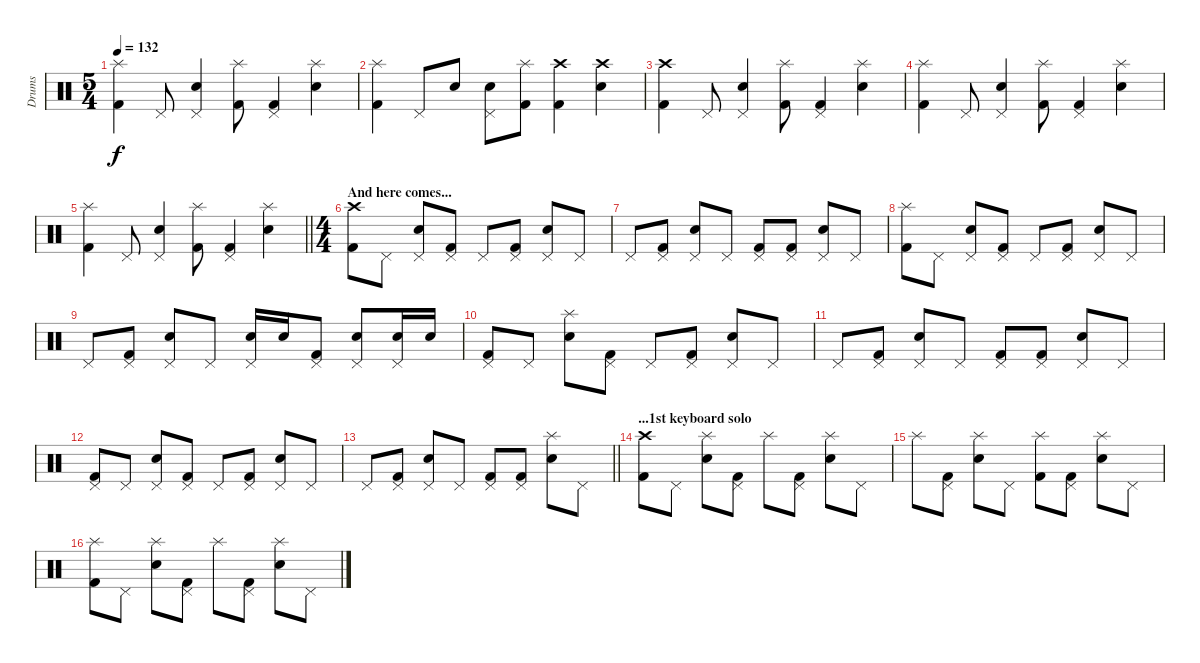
\track ("Drums" "Drums") {instrument percussion}
\staff {score}
\articulation defaults
\ts (5 4)
\tempo 132
\clef neutral
\ks c
("Splash (hit)" "Kick (hit) 2").4{dy f} "Pedal Hi-Hat (hit)".8 ("Pedal Hi-Hat (hit)" "Snare (hit) 2").4 ("Splash (hit)" "Kick (hit) 2").8 ("Pedal Hi-Hat (hit)" "Kick (hit) 2").4 ("Splash (hit)" "Snare (hit) 2").4 |
("Splash (hit)" "Kick (hit) 2").4 "Pedal Hi-Hat (hit)".8 "Snare (hit) 2".8 ("Pedal Hi-Hat (hit)" "Snare (hit) 2").8 ("Splash (hit)" "Kick (hit) 2").8 ("Crash high (hit)" "Kick (hit) 2").4 ("Crash high (hit)" "Snare (hit) 2").4 |
("Crash high (hit)" "Kick (hit) 2").4 "Pedal Hi-Hat (hit)".8 ("Pedal Hi-Hat (hit)" "Snare (hit) 2").4 ("Splash (hit)" "Kick (hit) 2").8 ("Pedal Hi-Hat (hit)" "Kick (hit) 2").4 ("Splash (hit)" "Snare (hit) 2").4 |
("Splash (hit)" "Kick (hit) 2").4 "Pedal Hi-Hat (hit)".8 ("Pedal Hi-Hat (hit)" "Snare (hit) 2").4 ("Splash (hit)" "Kick (hit) 2").8 ("Pedal Hi-Hat (hit)" "Kick (hit) 2").4 ("Splash (hit)" "Snare (hit) 2").4 |
\barLineRight lightlight
("Splash (hit)" "Kick (hit) 2").4 "Pedal Hi-Hat (hit)".8 ("Pedal Hi-Hat (hit)" "Snare (hit) 2").4 ("Splash (hit)" "Kick (hit) 2").8 ("Pedal Hi-Hat (hit)" "Kick (hit) 2").4 ("Splash (hit)" "Snare (hit) 2").4 |
\ts (4 4)
\section ("" "And here comes...")
("Crash high (hit)" "Kick (hit) 2").8 "Pedal Hi-Hat (hit)".8 ("Pedal Hi-Hat (hit)" "Snare (hit) 2").8 ("Pedal Hi-Hat (hit)" "Kick (hit) 2").8 "Pedal Hi-Hat (hit)".8 ("Pedal Hi-Hat (hit)" "Kick (hit) 2").8 ("Pedal Hi-Hat (hit)" "Snare (hit) 2").8 "Pedal Hi-Hat (hit)".8 |
"Pedal Hi-Hat (hit)".8 ("Pedal Hi-Hat (hit)" "Kick (hit) 2").8 ("Pedal Hi-Hat (hit)" "Snare (hit) 2").8 "Pedal Hi-Hat (hit)".8 ("Pedal Hi-Hat (hit)" "Kick (hit) 2").8 ("Pedal Hi-Hat (hit)" "Kick (hit) 2").8 ("Pedal Hi-Hat (hit)" "Snare (hit) 2").8 "Pedal Hi-Hat (hit)".8 |
("Splash (hit)" "Kick (hit) 2").8 "Pedal Hi-Hat (hit)".8 ("Pedal Hi-Hat (hit)" "Snare (hit) 2").8 ("Pedal Hi-Hat (hit)" "Kick (hit) 2").8 "Pedal Hi-Hat (hit)".8 ("Pedal Hi-Hat (hit)" "Kick (hit) 2").8 ("Pedal Hi-Hat (hit)" "Snare (hit) 2").8 "Pedal Hi-Hat (hit)".8 |
"Pedal Hi-Hat (hit)".8 ("Pedal Hi-Hat (hit)" "Kick (hit) 2").8 ("Pedal Hi-Hat (hit)" "Snare (hit) 2").8 "Pedal Hi-Hat (hit)".8 ("Pedal Hi-Hat (hit)" "Snare (hit) 2").16 "Snare (hit) 2".16 ("Pedal Hi-Hat (hit)" "Kick (hit) 2").8 ("Pedal Hi-Hat (hit)" "Snare (hit) 2").8 ("Pedal Hi-Hat (hit)" "Snare (hit) 2").16 "Snare (hit) 2".16 |
("Pedal Hi-Hat (hit)" "Kick (hit) 2").8 "Pedal Hi-Hat (hit)".8 ("Splash (hit)" "Snare (hit) 2").8 ("Pedal Hi-Hat (hit)" "Kick (hit) 2").8 "Pedal Hi-Hat (hit)".8 ("Pedal Hi-Hat (hit)" "Kick (hit) 2").8 ("Pedal Hi-Hat (hit)" "Snare (hit) 2").8 "Pedal Hi-Hat (hit)".8 |
"Pedal Hi-Hat (hit)".8 ("Pedal Hi-Hat (hit)" "Kick (hit) 2").8 ("Pedal Hi-Hat (hit)" "Snare (hit) 2").8 "Pedal Hi-Hat (hit)".8 ("Pedal Hi-Hat (hit)" "Kick (hit) 2").8 ("Pedal Hi-Hat (hit)" "Kick (hit) 2").8 ("Pedal Hi-Hat (hit)" "Snare (hit) 2").8 "Pedal Hi-Hat (hit)".8 |
("Pedal Hi-Hat (hit)" "Kick (hit) 2").8 "Pedal Hi-Hat (hit)".8 ("Pedal Hi-Hat (hit)" "Snare (hit) 2").8 ("Pedal Hi-Hat (hit)" "Kick (hit) 2").8 "Pedal Hi-Hat (hit)".8 ("Pedal Hi-Hat (hit)" "Kick (hit) 2").8 ("Pedal Hi-Hat (hit)" "Snare (hit) 2").8 "Pedal Hi-Hat (hit)".8 |
\barLineRight lightlight "Pedal Hi-Hat (hit)".8
("Pedal Hi-Hat (hit)" "Kick (hit) 2").8 ("Pedal Hi-Hat (hit)" "Snare (hit) 2").8 "Pedal Hi-Hat (hit)".8 ("Pedal Hi-Hat (hit)" "Kick (hit) 2").8 ("Pedal Hi-Hat (hit)" "Kick (hit) 2").8 ("Splash (hit)" "Snare (hit) 2").8 "Pedal Hi-Hat (hit)".8 |
\section ("" "...1st keyboard solo")
("Crash high (hit)" "Kick (hit) 2").8 "Pedal Hi-Hat (hit)".8 ("Splash (hit)" "Snare (hit) 2").8 ("Pedal Hi-Hat (hit)" "Kick (hit) 2").8 "Splash (hit)".8 ("Pedal Hi-Hat (hit)" "Kick (hit) 2").8 ("Splash (hit)" "Snare (hit) 2").8 "Pedal Hi-Hat (hit)".8 |
"Splash (hit)".8 ("Pedal Hi-Hat (hit)" "Kick (hit) 2").8 ("Splash (hit)" "Snare (hit) 2").8 "Pedal Hi-Hat (hit)".8 ("Splash (hit)" "Kick (hit) 2").8 ("Pedal Hi-Hat (hit)" "Kick (hit) 2").8 ("Splash (hit)" "Snare (hit) 2").8 "Pedal Hi-Hat (hit)".8 |
("Splash (hit)" "Kick (hit) 2").8 "Pedal Hi-Hat (hit)".8 ("Splash (hit)" "Snare (hit) 2").8 ("Pedal Hi-Hat (hit)" "Kick (hit) 2").8 "Splash (hit)".8 ("Pedal Hi-Hat (hit)" "Kick (hit) 2").8 ("Splash (hit)" "Snare (hit) 2").8 "Pedal Hi-Hat (hit)".8
